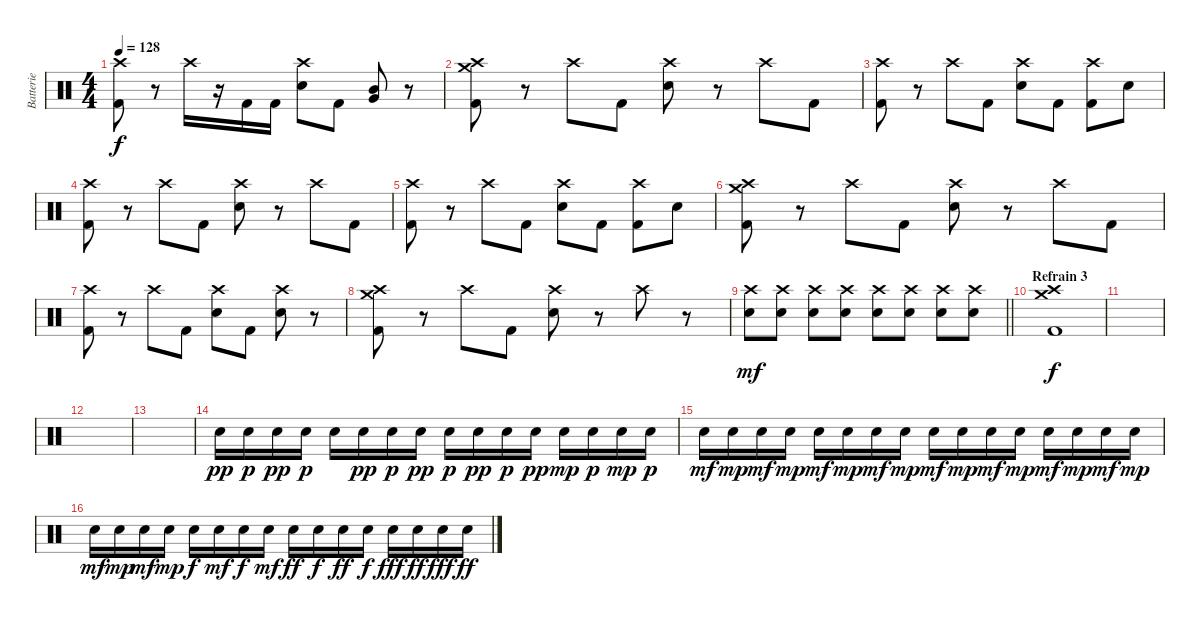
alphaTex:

\track ("Batterie" "Batterie") {instrument percussion}
\staff {score}
\articulation defaults
\ts (4 4)
\tempo 128
\clef neutral
\ks c
("Kick (hit) 2" "Crash high (hit)").8{dy f} r.8 "Crash high (hit)".16 r.16 "Kick (hit) 2".16 "Kick (hit) 2".16 ("Electric Snare (hit)" "Crash high (hit)").8 "Kick (hit) 2".8 ("Very Low Tom (hit)" "Mid Tom (hit)").8 r.8 |
("Kick (hit) 2" "Crash medium (hit)" "Crash high (hit)").8 r.8 "Crash high (hit)".8 "Kick (hit) 2".8 ("Electric Snare (hit)" "Crash high (hit)").8 r.8 "Crash high (hit)".8 "Kick (hit) 2".8 |
("Kick (hit) 2" "Crash high (hit)").8 r.8 "Crash high (hit)".8 "Kick (hit) 2".8 ("Electric Snare (hit)" "Crash high (hit)").8 "Kick (hit) 2".8 ("Kick (hit) 2" "Crash high (hit)").8 "Electric Snare (hit)".8 |
("Kick (hit) 2" "Crash high (hit)").8 r.8 "Crash high (hit)".8 "Kick (hit) 2".8 ("Electric Snare (hit)" "Crash high (hit)").8 r.8 "Crash high (hit)".8 "Kick (hit) 2".8 |
("Kick (hit) 2" "Crash high (hit)").8 r.8 "Crash high (hit)".8 "Kick (hit) 2".8 ("Electric Snare (hit)" "Crash high (hit)").8 "Kick (hit) 2".8 ("Kick (hit) 2" "Crash high (hit)").8 "Electric Snare (hit)".8 |
("Kick (hit) 2" "Crash medium (hit)" "Crash high (hit)").8 r.8 "Crash high (hit)".8 "Kick (hit) 2".8 ("Electric Snare (hit)" "Crash high (hit)").8 r.8 "Crash high (hit)".8 "Kick (hit) 2".8 |
("Kick (hit) 2" "Crash high (hit)").8 r.8 "Crash high (hit)".8 "Kick (hit) 2".8 ("Electric Snare (hit)" "Crash high (hit)").8 "Kick (hit) 2".8 ("Electric Snare (hit)" "Crash high (hit)").8 r.8 |
("Kick (hit) 2" "Crash medium (hit)" "Crash high (hit)").8 r.8 "Crash high (hit)".8 "Kick (hit) 2".8 ("Electric Snare (hit)" "Crash high (hit)").8 r.8 "Crash high (hit)".8 r.8 |
\barLineRight lightlight
("Electric Snare (hit)" "Crash high (hit)").8{dy mf} ("Electric Snare (hit)" "Crash high (hit)").8 ("Electric Snare (hit)" "Crash high (hit)").8 ("Electric Snare (hit)" "Crash high (hit)").8 ("Electric Snare (hit)" "Crash high (hit)").8 ("Electric Snare (hit)" "Crash high (hit)").8 ("Electric Snare (hit)" "Crash high (hit)").8 ("Electric Snare (hit)" "Crash high (hit)").8 |
\section ("" "Refrain 3")
("Kick (hit) 2" "Crash medium (hit)" "Crash high (hit)").1{dy f} |
|
|
|
"Electric Snare (hit)".16{dy pp} "Electric Snare (hit)".16{dy p} "Electric Snare (hit)".16{dy pp} "Electric Snare (hit)".16{dy p} "Electric Snare (hit)".16 "Electric Snare (hit)".16{dy pp} "Electric Snare (hit)".16{dy p} "Electric Snare (hit)".16{dy pp} "Electric Snare (hit)".16{dy p} "Electric Snare (hit)".16{dy pp} "Electric Snare (hit)".16{dy p} "Electric Snare (hit)".16{dy pp} "Electric Snare (hit)".16{dy mp} "Electric Snare (hit)".16{dy p} "Electric Snare (hit)".16{dy mp} "Electric Snare (hit)".16{dy p} |
"Electric Snare (hit)".16{dy mf} "Electric Snare (hit)".16{dy mp} "Electric Snare (hit)".16{dy mf} "Electric Snare (hit)".16{dy mp} "Electric Snare (hit)".16{dy mf} "Electric Snare (hit)".16{dy mp} "Electric Snare (hit)".16{dy mf} "Electric Snare (hit)".16{dy mp} "Electric Snare (hit)".16{dy mf} "Electric Snare (hit)".16{dy mp} "Electric Snare (hit)".16{dy mf} "Electric Snare (hit)".16{dy mp} "Electric Snare (hit)".16{dy mf} "Electric Snare (hit)".16{dy mp} "Electric Snare (hit)".16{dy mf} "Electric Snare (hit)".16{dy mp} |
"Electric Snare (hit)".16{dy mf} "Electric Snare (hit)".16{dy mp} "Electric Snare (hit)".16{dy mf} "Electric Snare (hit)".16{dy mp} "Electric Snare (hit)".16{dy f} "Electric Snare (hit)".16{dy mf} "Electric Snare (hit)".16{dy f} "Electric Snare (hit)".16{dy mf} "Electric Snare (hit)".16{dy ff} "Electric Snare (hit)".16{dy f} "Electric Snare (hit)".16{dy ff} "Electric Snare (hit)".16{dy f} "Electric Snare (hit)".16{dy fff} "Electric Snare (hit)".16{dy ff} "Electric Snare (hit)".16{dy fff} "Electric Snare (hit)".16{dy ff}
